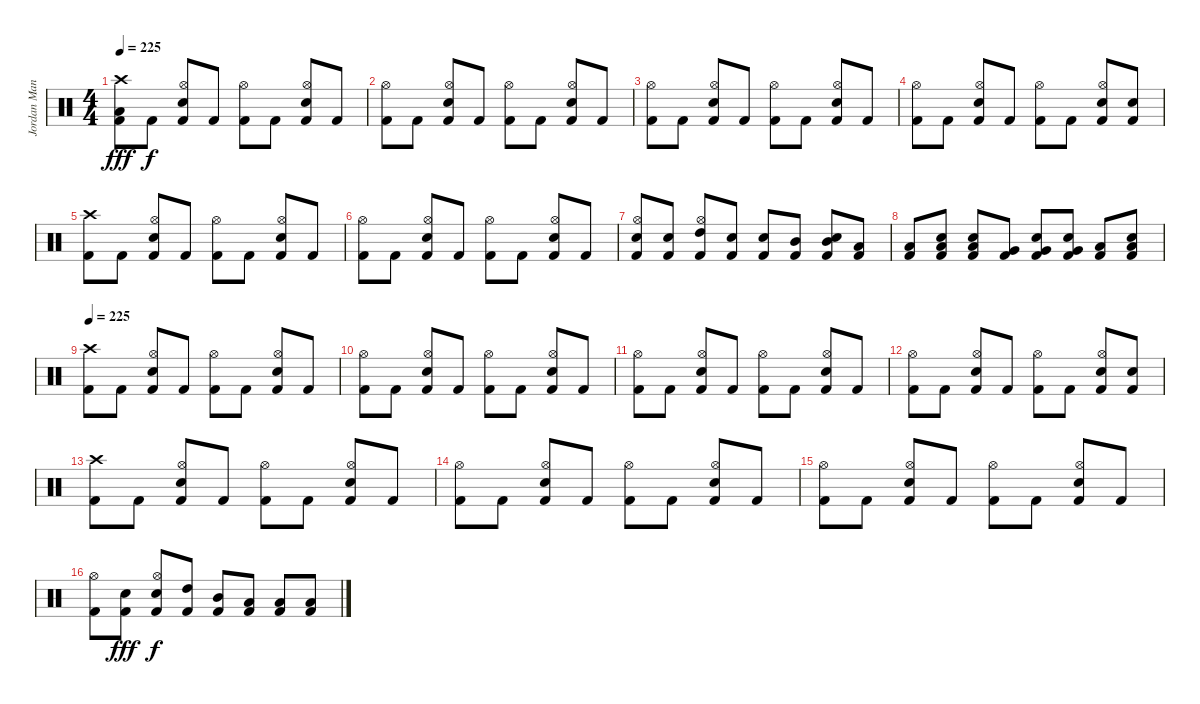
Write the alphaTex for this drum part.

\track ("Jordan Mancino" "Jordan Man") {instrument percussion}
\staff {score}
\articulation defaults
\ts (4 4)
\tempo 225
\clef neutral
\ks c
("Crash high (hit)" "Low Floor Tom (hit)" "Kick (hit) 2").8{dy fff} "Kick (hit) 2".8{dy f} ("Hi-Hat (open)" "Electric Snare (hit)" "Kick (hit) 2").8 "Kick (hit) 2".8 ("Hi-Hat (open)" "Kick (hit) 2").8 "Kick (hit) 2".8 ("Hi-Hat (open)" "Electric Snare (hit)" "Kick (hit) 2").8 "Kick (hit) 2".8 |
("Hi-Hat (open)" "Kick (hit) 2").8 "Kick (hit) 2".8 ("Hi-Hat (open)" "Electric Snare (hit)" "Kick (hit) 2").8 "Kick (hit) 2".8 ("Hi-Hat (open)" "Kick (hit) 2").8 "Kick (hit) 2".8 ("Hi-Hat (open)" "Electric Snare (hit)" "Kick (hit) 2").8 "Kick (hit) 2".8 |
("Hi-Hat (open)" "Kick (hit) 2").8 "Kick (hit) 2".8 ("Hi-Hat (open)" "Electric Snare (hit)" "Kick (hit) 2").8 "Kick (hit) 2".8 ("Hi-Hat (open)" "Kick (hit) 2").8 "Kick (hit) 2".8 ("Hi-Hat (open)" "Electric Snare (hit)" "Kick (hit) 2").8 "Kick (hit) 2".8 |
("Hi-Hat (open)" "Kick (hit) 2").8 "Kick (hit) 2".8 ("Hi-Hat (open)" "Electric Snare (hit)" "Kick (hit) 2").8 "Kick (hit) 2".8 ("Hi-Hat (open)" "Kick (hit) 2").8 "Kick (hit) 2".8 ("Hi-Hat (open)" "Electric Snare (hit)" "Kick (hit) 2").8 ("Electric Snare (hit)" "Kick (hit) 2").8 |
("Crash high (hit)" "Kick (hit) 2").8 "Kick (hit) 2".8 ("Hi-Hat (open)" "Electric Snare (hit)" "Kick (hit) 2").8 "Kick (hit) 2".8 ("Hi-Hat (open)" "Kick (hit) 2").8 "Kick (hit) 2".8 ("Hi-Hat (open)" "Electric Snare (hit)" "Kick (hit) 2").8 "Kick (hit) 2".8 |
("Hi-Hat (open)" "Kick (hit) 2").8 "Kick (hit) 2".8 ("Hi-Hat (open)" "Electric Snare (hit)" "Kick (hit) 2").8 "Kick (hit) 2".8 ("Hi-Hat (open)" "Kick (hit) 2").8 "Kick (hit) 2".8 ("Hi-Hat (open)" "Electric Snare (hit)" "Kick (hit) 2").8 "Kick (hit) 2".8 |
("Hi-Hat (open)" "Electric Snare (hit)" "Kick (hit) 2").8 ("Electric Snare (hit)" "Kick (hit) 2").8 ("Hi-Hat (open)" "High Tom (hit)" "Kick (hit) 2").8 ("Electric Snare (hit)" "Kick (hit) 2").8 ("Electric Snare (hit)" "Kick (hit) 2").8 ("Mid Tom (hit)" "Kick (hit) 2").8 ("Electric Snare (hit)" "Mid Tom (hit)" "Kick (hit) 2").8 ("Low Tom (hit)" "Kick (hit) 2").8 |
("Low Tom (hit)" "Kick (hit) 2").8 ("Electric Snare (hit)" "Low Tom (hit)" "Kick (hit) 2").8 ("Electric Snare (hit)" "Low Tom (hit)" "Kick (hit) 2").8 ("Very Low Tom (hit)" "Kick (hit) 2").8 ("Electric Snare (hit)" "Very Low Tom (hit)" "Kick (hit) 2").8 ("Electric Snare (hit)" "Very Low Tom (hit)" "Kick (hit) 2").8 ("Low Floor Tom (hit)" "Kick (hit) 2").8 ("Electric Snare (hit)" "Low Floor Tom (hit)" "Kick (hit) 2").8 |
\tempo 225
("Crash high (hit)" "Kick (hit) 2").8 "Kick (hit) 2".8 ("Hi-Hat (open)" "Electric Snare (hit)" "Kick (hit) 2").8 "Kick (hit) 2".8 ("Hi-Hat (open)" "Kick (hit) 2").8 "Kick (hit) 2".8 ("Hi-Hat (open)" "Electric Snare (hit)" "Kick (hit) 2").8 "Kick (hit) 2".8 |
("Hi-Hat (open)" "Kick (hit) 2").8 "Kick (hit) 2".8 ("Hi-Hat (open)" "Electric Snare (hit)" "Kick (hit) 2").8 "Kick (hit) 2".8 ("Hi-Hat (open)" "Kick (hit) 2").8 "Kick (hit) 2".8 ("Hi-Hat (open)" "Electric Snare (hit)" "Kick (hit) 2").8 "Kick (hit) 2".8 |
("Hi-Hat (open)" "Kick (hit) 2").8 "Kick (hit) 2".8 ("Hi-Hat (open)" "Electric Snare (hit)" "Kick (hit) 2").8 "Kick (hit) 2".8 ("Hi-Hat (open)" "Kick (hit) 2").8 "Kick (hit) 2".8 ("Hi-Hat (open)" "Electric Snare (hit)" "Kick (hit) 2").8 "Kick (hit) 2".8 |
("Hi-Hat (open)" "Kick (hit) 2").8 "Kick (hit) 2".8 ("Hi-Hat (open)" "Electric Snare (hit)" "Kick (hit) 2").8 "Kick (hit) 2".8 ("Hi-Hat (open)" "Kick (hit) 2").8 "Kick (hit) 2".8 ("Hi-Hat (open)" "Electric Snare (hit)" "Kick (hit) 2").8 ("Electric Snare (hit)" "Kick (hit) 2").8 |
("Crash high (hit)" "Kick (hit) 2").8 "Kick (hit) 2".8 ("Hi-Hat (open)" "Electric Snare (hit)" "Kick (hit) 2").8 "Kick (hit) 2".8 ("Hi-Hat (open)" "Kick (hit) 2").8 "Kick (hit) 2".8 ("Hi-Hat (open)" "Electric Snare (hit)" "Kick (hit) 2").8 "Kick (hit) 2".8 |
("Hi-Hat (open)" "Kick (hit) 2").8 "Kick (hit) 2".8 ("Hi-Hat (open)" "Electric Snare (hit)" "Kick (hit) 2").8 "Kick (hit) 2".8 ("Hi-Hat (open)" "Kick (hit) 2").8 "Kick (hit) 2".8 ("Hi-Hat (open)" "Electric Snare (hit)" "Kick (hit) 2").8 "Kick (hit) 2".8 |
("Hi-Hat (open)" "Kick (hit) 2").8 "Kick (hit) 2".8 ("Hi-Hat (open)" "Electric Snare (hit)" "Kick (hit) 2").8 "Kick (hit) 2".8 ("Hi-Hat (open)" "Kick (hit) 2").8 "Kick (hit) 2".8 ("Hi-Hat (open)" "Electric Snare (hit)" "Kick (hit) 2").8 "Kick (hit) 2".8 |
("Hi-Hat (open)" "Kick (hit) 2").8 ("Electric Snare (hit)" "Kick (hit) 2").8{dy fff} ("Hi-Hat (open)" "Electric Snare (hit)" "Kick (hit) 2").8{dy f} ("High Tom (hit)" "Kick (hit) 2").8 ("Mid Tom (hit)" "Kick (hit) 2").8 ("Low Tom (hit)" "Kick (hit) 2").8 ("Low Tom (hit)" "Kick (hit) 2").8 ("Low Floor Tom (hit)" "Kick (hit) 2").8
